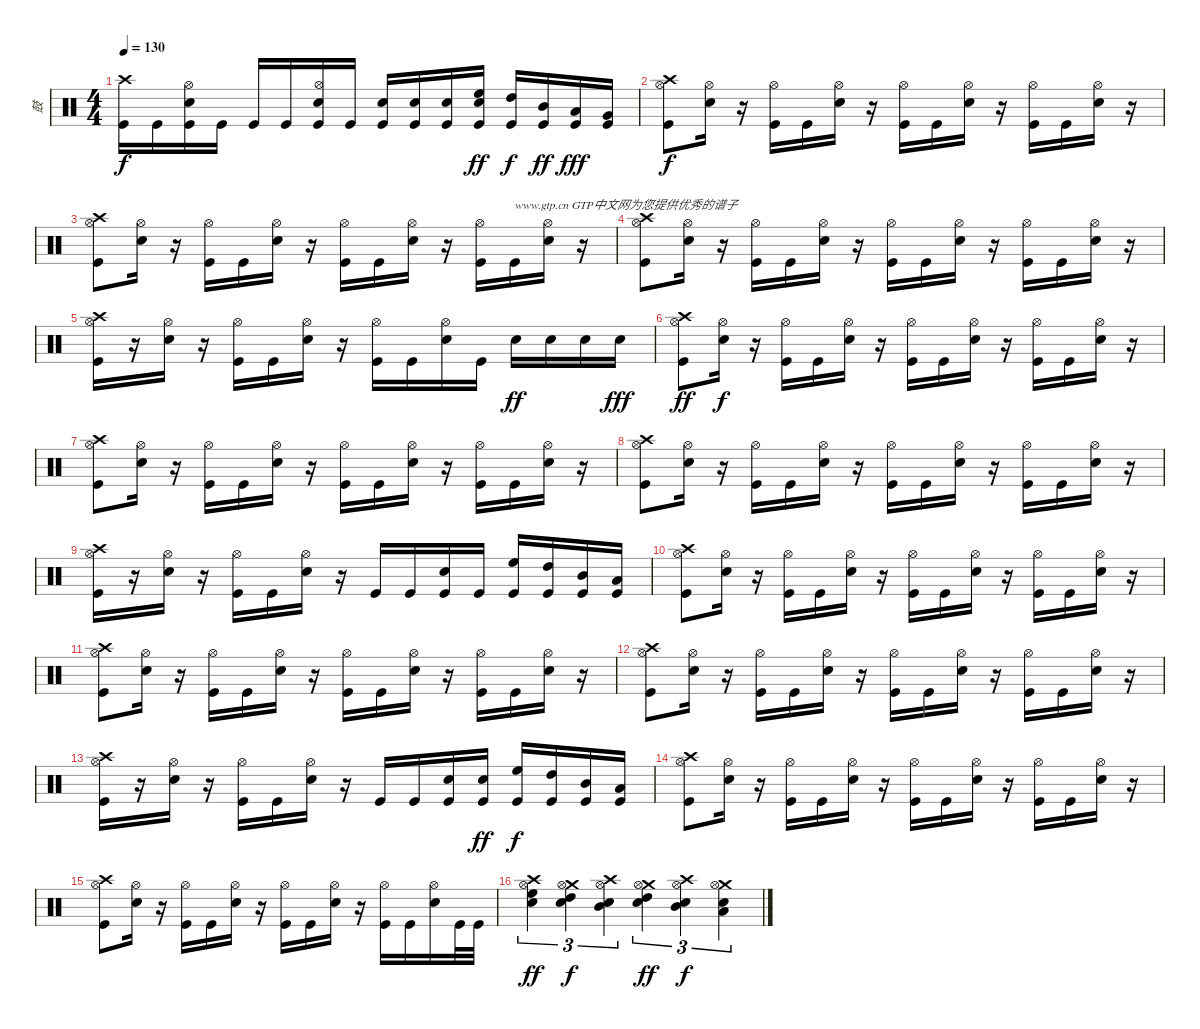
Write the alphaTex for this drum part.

\track ("鼓" "鼓") {instrument percussion}
\staff {score}
\articulation defaults
\ts (4 4)
\tempo 130
\clef neutral
\ks c
("Crash high (hit)" "Kick (hit)").16{dy f} "Kick (hit)".16 ("Hi-Hat (open)" "Kick (hit)" "Snare (hit) 2").16 "Kick (hit)".16 "Kick (hit)".16 "Kick (hit)".16 ("Hi-Hat (open)" "Kick (hit)" "Snare (hit) 2").16 "Kick (hit)".16 ("Snare (hit) 2" "Kick (hit)").16 ("Snare (hit) 2" "Kick (hit)").16 ("Snare (hit) 2" "Kick (hit)").16 ("Snare (hit) 2" "Kick (hit)" "High Floor Tom (hit)").16{dy ff} ("Kick (hit)" "High Tom (hit)").16{dy f} ("Kick (hit)" "Mid Tom (hit)").16{dy ff} ("Low Tom (hit)" "Kick (hit)").16{dy fff} ("Kick (hit)" "Very Low Tom (hit)").16 |
("Crash high (hit)" "Hi-Hat (open)" "Kick (hit)").8{dy f} ("Hi-Hat (open)" "Snare (hit) 2").16 r.16 ("Hi-Hat (open)" "Kick (hit)").16 "Kick (hit)".16 ("Hi-Hat (open)" "Snare (hit) 2").16 r.16 ("Hi-Hat (open)" "Kick (hit)").16 "Kick (hit)".16 ("Hi-Hat (open)" "Snare (hit) 2").16 r.16 ("Hi-Hat (open)" "Kick (hit)").16 "Kick (hit)".16 ("Hi-Hat (open)" "Snare (hit) 2").16 r.16 |
("Crash high (hit)" "Hi-Hat (open)" "Kick (hit)").8 ("Hi-Hat (open)" "Snare (hit) 2").16 r.16 ("Hi-Hat (open)" "Kick (hit)").16 "Kick (hit)".16 ("Hi-Hat (open)" "Snare (hit) 2").16 r.16 ("Hi-Hat (open)" "Kick (hit)").16 "Kick (hit)".16 ("Hi-Hat (open)" "Snare (hit) 2").16 r.16 ("Hi-Hat (open)" "Kick (hit)").16 "Kick (hit)".16{txt "www.gtp.cn GTP中文网为您提供优秀的谱子"} ("Hi-Hat (open)" "Snare (hit) 2").16 r.16 |
("Hi-Hat (open)" "Crash high (hit)" "Kick (hit)").8 ("Hi-Hat (open)" "Snare (hit) 2").16 r.16 ("Hi-Hat (open)" "Kick (hit)").16 "Kick (hit)".16 ("Hi-Hat (open)" "Snare (hit) 2").16 r.16 ("Hi-Hat (open)" "Kick (hit)").16 "Kick (hit)".16 ("Hi-Hat (open)" "Snare (hit) 2").16 r.16 ("Hi-Hat (open)" "Kick (hit)").16 "Kick (hit)".16 ("Hi-Hat (open)" "Snare (hit) 2").16 r.16 |
("Crash high (hit)" "Hi-Hat (open)" "Kick (hit)").16 r.16 ("Hi-Hat (open)" "Snare (hit) 2").16 r.16 ("Hi-Hat (open)" "Kick (hit)").16 "Kick (hit)".16 ("Hi-Hat (open)" "Snare (hit) 2").16 r.16 ("Hi-Hat (open)" "Kick (hit)").16 "Kick (hit)".16 ("Hi-Hat (open)" "Snare (hit) 2").16 "Kick (hit)".16 "Snare (hit) 2".16{dy ff} "Snare (hit) 2".16 "Snare (hit) 2".16 "Snare (hit) 2".16{dy fff} |
("Hi-Hat (open)" "Crash high (hit)" "Kick (hit)").8{dy ff} ("Hi-Hat (open)" "Snare (hit) 2").16{dy f} r.16 ("Hi-Hat (open)" "Kick (hit)").16 "Kick (hit)".16 ("Hi-Hat (open)" "Snare (hit) 2").16 r.16 ("Hi-Hat (open)" "Kick (hit)").16 "Kick (hit)".16 ("Hi-Hat (open)" "Snare (hit) 2").16 r.16 ("Hi-Hat (open)" "Kick (hit)").16 "Kick (hit)".16 ("Hi-Hat (open)" "Snare (hit) 2").16 r.16 |
("Hi-Hat (open)" "Crash high (hit)" "Kick (hit)").8 ("Hi-Hat (open)" "Snare (hit) 2").16 r.16 ("Hi-Hat (open)" "Kick (hit)").16 "Kick (hit)".16 ("Hi-Hat (open)" "Snare (hit) 2").16 r.16 ("Hi-Hat (open)" "Kick (hit)").16 "Kick (hit)".16 ("Hi-Hat (open)" "Snare (hit) 2").16 r.16 ("Hi-Hat (open)" "Kick (hit)").16 "Kick (hit)".16 ("Hi-Hat (open)" "Snare (hit) 2").16 r.16 |
("Hi-Hat (open)" "Crash high (hit)" "Kick (hit)").8 ("Hi-Hat (open)" "Snare (hit) 2").16 r.16 ("Hi-Hat (open)" "Kick (hit)").16 "Kick (hit)".16 ("Hi-Hat (open)" "Snare (hit) 2").16 r.16 ("Hi-Hat (open)" "Kick (hit)").16 "Kick (hit)".16 ("Hi-Hat (open)" "Snare (hit) 2").16 r.16 ("Hi-Hat (open)" "Kick (hit)").16 "Kick (hit)".16 ("Hi-Hat (open)" "Snare (hit) 2").16 r.16 |
("Hi-Hat (open)" "Crash high (hit)" "Kick (hit)").16 r.16 ("Hi-Hat (open)" "Snare (hit) 2").16 r.16 ("Hi-Hat (open)" "Kick (hit)").16 "Kick (hit)".16 ("Hi-Hat (open)" "Snare (hit) 2").16 r.16 "Kick (hit)".16 "Kick (hit)".16 ("Kick (hit)" "Snare (hit) 2").16 "Kick (hit)".16 ("High Floor Tom (hit)" "Kick (hit)").16 ("High Tom (hit)" "Kick (hit)").16 ("Kick (hit)" "Mid Tom (hit)").16 ("Low Tom (hit)" "Kick (hit)").16 |
("Hi-Hat (open)" "Crash high (hit)" "Kick (hit)").8 ("Hi-Hat (open)" "Snare (hit) 2").16 r.16 ("Hi-Hat (open)" "Kick (hit)").16 "Kick (hit)".16 ("Hi-Hat (open)" "Snare (hit) 2").16 r.16 ("Hi-Hat (open)" "Kick (hit)").16 "Kick (hit)".16 ("Hi-Hat (open)" "Snare (hit) 2").16 r.16 ("Hi-Hat (open)" "Kick (hit)").16 "Kick (hit)".16 ("Hi-Hat (open)" "Snare (hit) 2").16 r.16 |
("Hi-Hat (open)" "Crash high (hit)" "Kick (hit)").8 ("Hi-Hat (open)" "Snare (hit) 2").16 r.16 ("Hi-Hat (open)" "Kick (hit)").16 "Kick (hit)".16 ("Hi-Hat (open)" "Snare (hit) 2").16 r.16 ("Hi-Hat (open)" "Kick (hit)").16 "Kick (hit)".16 ("Hi-Hat (open)" "Snare (hit) 2").16 r.16 ("Hi-Hat (open)" "Kick (hit)").16 "Kick (hit)".16 ("Hi-Hat (open)" "Snare (hit) 2").16 r.16 |
("Hi-Hat (open)" "Crash high (hit)" "Kick (hit)").8 ("Hi-Hat (open)" "Snare (hit) 2").16 r.16 ("Hi-Hat (open)" "Kick (hit)").16 "Kick (hit)".16 ("Hi-Hat (open)" "Snare (hit) 2").16 r.16 ("Hi-Hat (open)" "Kick (hit)").16 "Kick (hit)".16 ("Hi-Hat (open)" "Snare (hit) 2").16 r.16 ("Hi-Hat (open)" "Kick (hit)").16 "Kick (hit)".16 ("Hi-Hat (open)" "Snare (hit) 2").16 r.16 |
("Crash high (hit)" "Kick (hit)" "Hi-Hat (open)").16 r.16 ("Snare (hit) 2" "Hi-Hat (open)").16 r.16 ("Kick (hit)" "Hi-Hat (open)").16 "Kick (hit)".16 ("Snare (hit) 2" "Hi-Hat (open)").16 r.16 "Kick (hit)".16 "Kick (hit)".16 ("Snare (hit) 2" "Kick (hit)").16 ("Kick (hit)" "Snare (hit) 2").16{dy ff} ("Kick (hit)" "High Floor Tom (hit)").16{dy f} ("Kick (hit)" "High Tom (hit)").16 ("Mid Tom (hit)" "Kick (hit)").16 ("Kick (hit)" "Low Tom (hit)").16 |
("Hi-Hat (open)" "Crash high (hit)" "Kick (hit)").8 ("Hi-Hat (open)" "Snare (hit) 2").16 r.16 ("Hi-Hat (open)" "Kick (hit)").16 "Kick (hit)".16 ("Hi-Hat (open)" "Snare (hit) 2").16 r.16 ("Hi-Hat (open)" "Kick (hit)").16 "Kick (hit)".16 ("Hi-Hat (open)" "Snare (hit) 2").16 r.16 ("Hi-Hat (open)" "Kick (hit)").16 "Kick (hit)".16 ("Hi-Hat (open)" "Snare (hit) 2").16 r.16 |
("Hi-Hat (open)" "Crash high (hit)" "Kick (hit)").8 ("Hi-Hat (open)" "Snare (hit) 2").16 r.16 ("Hi-Hat (open)" "Kick (hit)").16 "Kick (hit)".16 ("Hi-Hat (open)" "Snare (hit) 2").16 r.16 ("Hi-Hat (open)" "Kick (hit)").16 "Kick (hit)".16 ("Hi-Hat (open)" "Snare (hit) 2").16 r.16 ("Hi-Hat (open)" "Kick (hit)").16 "Kick (hit)".16 ("Hi-Hat (open)" "Snare (hit) 2").16 "Kick (hit)".32 "Kick (hit)".32 |
("Snare (hit) 2" "High Floor Tom (hit)" "Hi-Hat (open)" "Crash high (hit)").4{tu (3 2) dy ff} ("Crash medium (hit)" "High Tom (hit)" "Snare (hit) 2" "Hi-Hat (open)").4{tu (3 2) dy f} ("Mid Tom (hit)" "Snare (hit) 2" "Hi-Hat (open)" "Crash high (hit)").4{tu (3 2)} ("Crash medium (hit)" "High Tom (hit)" "Snare (hit) 2" "Hi-Hat (open)").4{tu (3 2) dy ff} ("Mid Tom (hit)" "Snare (hit) 2" "Hi-Hat (open)" "Crash high (hit)").4{tu (3 2) dy f} ("Crash medium (hit)" "Low Tom (hit)" "Snare (hit) 2" "Hi-Hat (open)").4{tu (3 2)}
